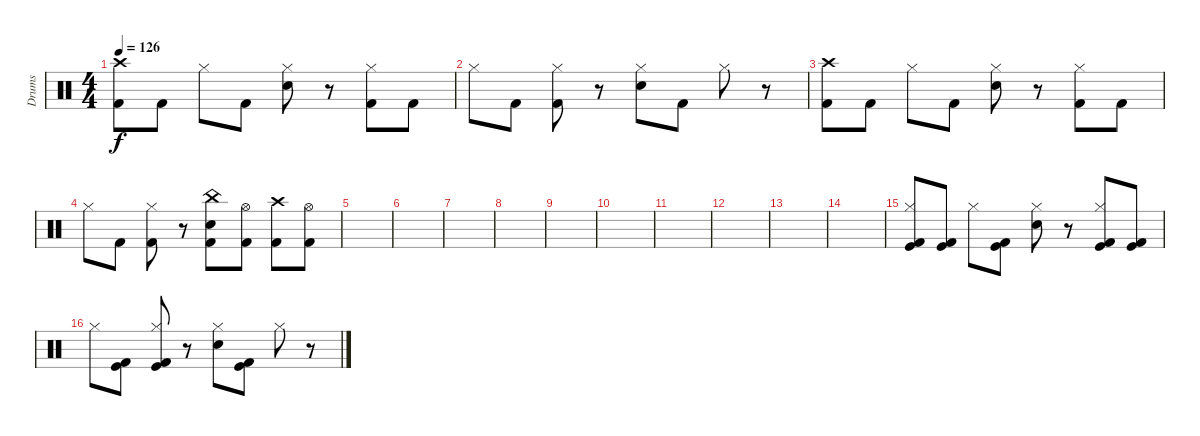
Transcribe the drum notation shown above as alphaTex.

\track ("Drums" "Drums") {instrument percussion}
\staff {score}
\articulation defaults
\ts (4 4)
\tempo 126
\clef neutral
\ks c
("Crash high (hit)" "Kick (hit) 2").8{dy f} "Kick (hit) 2".8 "Hi-Hat (closed)".8 "Kick (hit) 2".8 ("Hi-Hat (closed)" "Electric Snare (hit)").8 r.8 ("Hi-Hat (closed)" "Kick (hit) 2").8 "Kick (hit) 2".8 |
"Hi-Hat (closed)".8 "Kick (hit) 2".8 ("Hi-Hat (closed)" "Kick (hit) 2").8 r.8 ("Hi-Hat (closed)" "Electric Snare (hit)").8 "Kick (hit) 2".8 "Hi-Hat (closed)".8 r.8 |
("Crash high (hit)" "Kick (hit) 2").8 "Kick (hit) 2".8 "Hi-Hat (closed)".8 "Kick (hit) 2".8 ("Hi-Hat (closed)" "Electric Snare (hit)").8 r.8 ("Hi-Hat (closed)" "Kick (hit) 2").8 "Kick (hit) 2".8 |
"Hi-Hat (closed)".8 "Kick (hit) 2".8 ("Hi-Hat (closed)" "Kick (hit) 2").8 r.8 ("China (hit)" "Electric Snare (hit)" "Kick (hit) 2").8 ("Hi-Hat (open)" "Kick (hit) 2").8 ("Crash high (hit)" "Kick (hit) 2").8 ("Hi-Hat (open)" "Kick (hit) 2").8 |
|
|
|
|
|
|
|
|
|
|
("Hi-Hat (closed)" "Kick (hit)" "Kick (hit) 2").8 ("Kick (hit)" "Kick (hit) 2").8 "Hi-Hat (closed)".8 ("Kick (hit)" "Kick (hit) 2").8 ("Hi-Hat (closed)" "Electric Snare (hit)").8 r.8 ("Hi-Hat (closed)" "Kick (hit)" "Kick (hit) 2").8 ("Kick (hit)" "Kick (hit) 2").8 |
"Hi-Hat (closed)".8 ("Kick (hit)" "Kick (hit) 2").8 ("Hi-Hat (closed)" "Kick (hit)" "Kick (hit) 2").8 r.8 ("Hi-Hat (closed)" "Electric Snare (hit)").8 ("Kick (hit)" "Kick (hit) 2").8 "Hi-Hat (closed)".8 r.8
